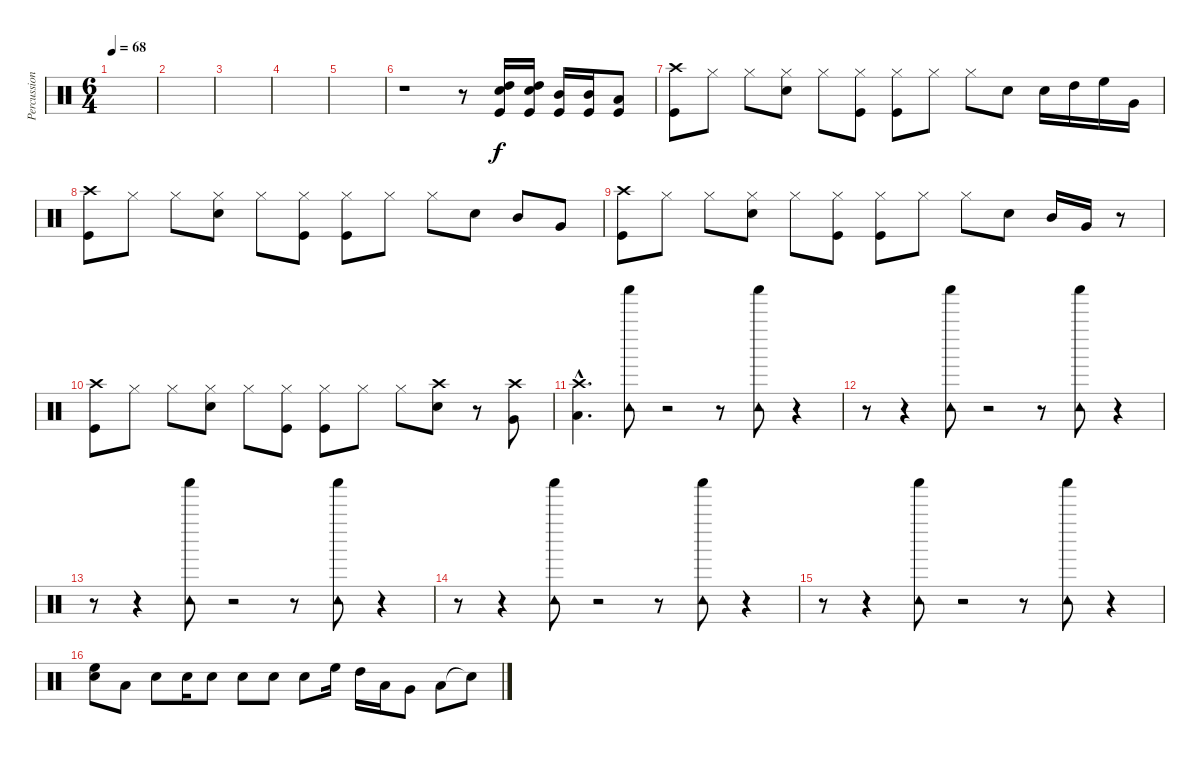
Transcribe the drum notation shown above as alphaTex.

\track ("Percussion" "Percussion") {instrument percussion}
\staff {score}
\articulation defaults
\ts (6 4)
\tempo 68
\clef neutral
\ks c
|
|
|
|
|
r.1 r.8 ("High Tom (hit)" "Electric Snare (hit)" "Kick (hit)").16 ("High Tom (hit)" "Electric Snare (hit)" "Kick (hit)").16 ("Mid Tom (hit)" "Kick (hit)").16 ("Mid Tom (hit)" "Kick (hit)").16 ("Low Tom (hit)" "Kick (hit)").8 |
("Crash high (hit)" "Kick (hit)").8 "Hi-Hat (closed)".8 "Hi-Hat (closed)".8 ("Hi-Hat (closed)" "Electric Snare (hit)").8 "Hi-Hat (closed)".8 ("Hi-Hat (closed)" "Kick (hit)").8 ("Hi-Hat (closed)" "Kick (hit)").8 "Hi-Hat (closed)".8 "Hi-Hat (closed)".8 "Electric Snare (hit)".8 "Electric Snare (hit)".16 "High Tom (hit)".16 "High Floor Tom (hit)".16 "Very Low Tom (hit)".16 |
("Crash high (hit)" "Kick (hit)").8 "Hi-Hat (closed)".8 "Hi-Hat (closed)".8 ("Hi-Hat (closed)" "Electric Snare (hit)").8 "Hi-Hat (closed)".8 ("Hi-Hat (closed)" "Kick (hit)").8 ("Hi-Hat (closed)" "Kick (hit)").8 "Hi-Hat (closed)".8 "Hi-Hat (closed)".8 "Electric Snare (hit)".8 "Mid Tom (hit)".8 "Very Low Tom (hit)".8 |
("Crash high (hit)" "Kick (hit)").8 "Hi-Hat (closed)".8 "Hi-Hat (closed)".8 ("Hi-Hat (closed)" "Electric Snare (hit)").8 "Hi-Hat (closed)".8 ("Hi-Hat (closed)" "Kick (hit)").8 ("Hi-Hat (closed)" "Kick (hit)").8 "Hi-Hat (closed)".8 "Hi-Hat (closed)".8 "Electric Snare (hit)".8 "Mid Tom (hit)".16 "Very Low Tom (hit)".16 r.8 |
("Crash high (hit)" "Kick (hit)").8 "Hi-Hat (closed)".8 "Hi-Hat (closed)".8 ("Hi-Hat (closed)" "Electric Snare (hit)").8 "Hi-Hat (closed)".8 ("Hi-Hat (closed)" "Kick (hit)").8 ("Hi-Hat (closed)" "Kick (hit)").8 "Hi-Hat (closed)".8 "Hi-Hat (closed)".8 ("Crash high (hit)" "Electric Snare (hit)").8 r.8 ("Crash high (hit)" "Very Low Tom (hit)").8 |
("Crash high (hit)"{hac} "Low Tom (hit)"{hac}).4{d} ("Tambourine (hit)" "Shaker (hit)").8 r.2 r.8 ("Tambourine (hit)" "Shaker (hit)").8 r.4 |
r.8 r.4 ("Tambourine (hit)" "Shaker (hit)").8 r.2 r.8 ("Tambourine (hit)" "Shaker (hit)").8 r.4 |
r.8 r.4 ("Tambourine (hit)" "Shaker (hit)").8 r.2 r.8 ("Tambourine (hit)" "Shaker (hit)").8 r.4 |
r.8 r.4 ("Tambourine (hit)" "Shaker (hit)").8 r.2 r.8 ("Tambourine (hit)" "Shaker (hit)").8 r.4 |
r.8 r.4 ("Tambourine (hit)" "Shaker (hit)").8 r.2 r.8 ("Tambourine (hit)" "Shaker (hit)").8 r.4 |
("High Floor Tom (hit)" "Electric Snare (hit)").8 "Low Tom (hit)".8 "Electric Snare (hit)".8 "Electric Snare (hit)".16 "Electric Snare (hit)".8 "Electric Snare (hit)".8 "Electric Snare (hit)".8 "Electric Snare (hit)".8 "High Floor Tom (hit)".16 "High Tom (hit)".16 "Low Tom (hit)".16 "Very Low Tom (hit)".8 "Low Floor Tom (hit)".8 "Snare (hit)"{t}.8
